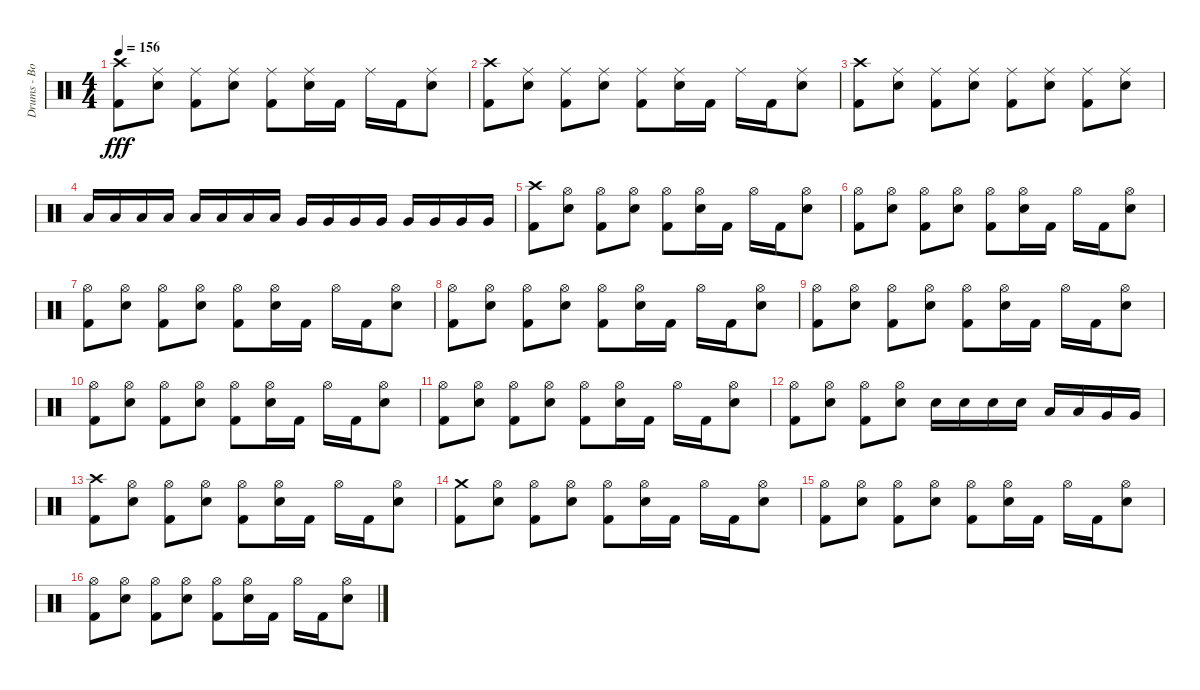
\track ("Drums - Bobby Schayer" "Drums - Bo") {instrument percussion}
\staff {score}
\articulation defaults
\ts (4 4)
\tempo 156
\clef neutral
\ks c
("Crash high (hit)" "Kick (hit) 2").8{dy fff} ("Electric Snare (hit)" "Ride (middle)").8 ("Kick (hit) 2" "Ride (middle)").8 ("Electric Snare (hit)" "Ride (middle)").8 ("Kick (hit) 2" "Ride (middle)").8 ("Electric Snare (hit)" "Ride (middle)").16 "Kick (hit) 2".16 "Ride (middle)".16 "Kick (hit) 2".16 ("Electric Snare (hit)" "Ride (middle)").8 |
("Kick (hit) 2" "Crash high (hit)").8 ("Electric Snare (hit)" "Ride (middle)").8 ("Kick (hit) 2" "Ride (middle)").8 ("Electric Snare (hit)" "Ride (middle)").8 ("Kick (hit) 2" "Ride (middle)").8 ("Electric Snare (hit)" "Ride (middle)").16 "Kick (hit) 2".16 "Ride (middle)".16 "Kick (hit) 2".16 ("Electric Snare (hit)" "Ride (middle)").8 |
("Kick (hit) 2" "Crash high (hit)").8 ("Electric Snare (hit)" "Ride (middle)").8 ("Kick (hit) 2" "Ride (middle)").8 ("Electric Snare (hit)" "Ride (middle)").8 ("Kick (hit) 2" "Ride (middle)").8 ("Electric Snare (hit)" "Ride (middle)").8 ("Kick (hit) 2" "Ride (middle)").8 ("Electric Snare (hit)" "Ride (middle)").8 |
"Low Tom (hit)".16 "Low Tom (hit)".16 "Low Tom (hit)".16 "Low Tom (hit)".16 "Low Tom (hit)".16 "Low Tom (hit)".16 "Low Tom (hit)".16 "Low Tom (hit)".16 "Very Low Tom (hit)".16 "Very Low Tom (hit)".16 "Very Low Tom (hit)".16 "Very Low Tom (hit)".16 "Very Low Tom (hit)".16 "Very Low Tom (hit)".16 "Very Low Tom (hit)".16 "Very Low Tom (hit)".16 |
("Kick (hit) 2" "Crash high (hit)").8 ("Electric Snare (hit)" "Hi-Hat (open)").8 ("Kick (hit) 2" "Hi-Hat (open)").8 ("Electric Snare (hit)" "Hi-Hat (open)").8 ("Kick (hit) 2" "Hi-Hat (open)").8 ("Electric Snare (hit)" "Hi-Hat (open)").16 "Kick (hit) 2".16 "Hi-Hat (open)".16 "Kick (hit) 2".16 ("Electric Snare (hit)" "Hi-Hat (open)").8 |
("Kick (hit) 2" "Hi-Hat (open)").8 ("Electric Snare (hit)" "Hi-Hat (open)").8 ("Kick (hit) 2" "Hi-Hat (open)").8 ("Electric Snare (hit)" "Hi-Hat (open)").8 ("Kick (hit) 2" "Hi-Hat (open)").8 ("Electric Snare (hit)" "Hi-Hat (open)").16 "Kick (hit) 2".16 "Hi-Hat (open)".16 "Kick (hit) 2".16 ("Electric Snare (hit)" "Hi-Hat (open)").8 |
("Kick (hit) 2" "Hi-Hat (open)").8 ("Electric Snare (hit)" "Hi-Hat (open)").8 ("Kick (hit) 2" "Hi-Hat (open)").8 ("Electric Snare (hit)" "Hi-Hat (open)").8 ("Kick (hit) 2" "Hi-Hat (open)").8 ("Electric Snare (hit)" "Hi-Hat (open)").16 "Kick (hit) 2".16 "Hi-Hat (open)".16 "Kick (hit) 2".16 ("Electric Snare (hit)" "Hi-Hat (open)").8 |
("Kick (hit) 2" "Hi-Hat (open)").8 ("Electric Snare (hit)" "Hi-Hat (open)").8 ("Kick (hit) 2" "Hi-Hat (open)").8 ("Electric Snare (hit)" "Hi-Hat (open)").8 ("Kick (hit) 2" "Hi-Hat (open)").8 ("Electric Snare (hit)" "Hi-Hat (open)").16 "Kick (hit) 2".16 "Hi-Hat (open)".16 "Kick (hit) 2".16 ("Electric Snare (hit)" "Hi-Hat (open)").8 |
("Kick (hit) 2" "Hi-Hat (open)").8 ("Electric Snare (hit)" "Hi-Hat (open)").8 ("Kick (hit) 2" "Hi-Hat (open)").8 ("Electric Snare (hit)" "Hi-Hat (open)").8 ("Kick (hit) 2" "Hi-Hat (open)").8 ("Electric Snare (hit)" "Hi-Hat (open)").16 "Kick (hit) 2".16 "Hi-Hat (open)".16 "Kick (hit) 2".16 ("Electric Snare (hit)" "Hi-Hat (open)").8 |
("Kick (hit) 2" "Hi-Hat (open)").8 ("Electric Snare (hit)" "Hi-Hat (open)").8 ("Kick (hit) 2" "Hi-Hat (open)").8 ("Electric Snare (hit)" "Hi-Hat (open)").8 ("Kick (hit) 2" "Hi-Hat (open)").8 ("Electric Snare (hit)" "Hi-Hat (open)").16 "Kick (hit) 2".16 "Hi-Hat (open)".16 "Kick (hit) 2".16 ("Electric Snare (hit)" "Hi-Hat (open)").8 |
("Kick (hit) 2" "Hi-Hat (open)").8 ("Electric Snare (hit)" "Hi-Hat (open)").8 ("Kick (hit) 2" "Hi-Hat (open)").8 ("Electric Snare (hit)" "Hi-Hat (open)").8 ("Kick (hit) 2" "Hi-Hat (open)").8 ("Electric Snare (hit)" "Hi-Hat (open)").16 "Kick (hit) 2".16 "Hi-Hat (open)".16 "Kick (hit) 2".16 ("Electric Snare (hit)" "Hi-Hat (open)").8 |
("Kick (hit) 2" "Hi-Hat (open)").8 ("Electric Snare (hit)" "Hi-Hat (open)").8 ("Kick (hit) 2" "Hi-Hat (open)").8 ("Electric Snare (hit)" "Hi-Hat (open)").8 "Electric Snare (hit)".16 "Electric Snare (hit)".16 "Electric Snare (hit)".16 "Electric Snare (hit)".16 "Low Tom (hit)".16 "Low Tom (hit)".16 "Very Low Tom (hit)".16 "Very Low Tom (hit)".16 |
("Kick (hit) 2" "Crash high (hit)").8 ("Electric Snare (hit)" "Hi-Hat (open)").8 ("Kick (hit) 2" "Hi-Hat (open)").8 ("Electric Snare (hit)" "Hi-Hat (open)").8 ("Kick (hit) 2" "Hi-Hat (open)").8 ("Electric Snare (hit)" "Hi-Hat (open)").16 "Kick (hit) 2".16 "Hi-Hat (open)".16 "Kick (hit) 2".16 ("Electric Snare (hit)" "Hi-Hat (open)").8 |
("Kick (hit) 2" "Crash medium (hit)").8 ("Electric Snare (hit)" "Hi-Hat (open)").8 ("Kick (hit) 2" "Hi-Hat (open)").8 ("Electric Snare (hit)" "Hi-Hat (open)").8 ("Kick (hit) 2" "Hi-Hat (open)").8 ("Electric Snare (hit)" "Hi-Hat (open)").16 "Kick (hit) 2".16 "Hi-Hat (open)".16 "Kick (hit) 2".16 ("Electric Snare (hit)" "Hi-Hat (open)").8 |
("Kick (hit) 2" "Hi-Hat (open)").8 ("Electric Snare (hit)" "Hi-Hat (open)").8 ("Kick (hit) 2" "Hi-Hat (open)").8 ("Electric Snare (hit)" "Hi-Hat (open)").8 ("Kick (hit) 2" "Hi-Hat (open)").8 ("Electric Snare (hit)" "Hi-Hat (open)").16 "Kick (hit) 2".16 "Hi-Hat (open)".16 "Kick (hit) 2".16 ("Electric Snare (hit)" "Hi-Hat (open)").8 |
("Kick (hit) 2" "Hi-Hat (open)").8 ("Electric Snare (hit)" "Hi-Hat (open)").8 ("Kick (hit) 2" "Hi-Hat (open)").8 ("Electric Snare (hit)" "Hi-Hat (open)").8 ("Kick (hit) 2" "Hi-Hat (open)").8 ("Electric Snare (hit)" "Hi-Hat (open)").16 "Kick (hit) 2".16 "Hi-Hat (open)".16 "Kick (hit) 2".16 ("Electric Snare (hit)" "Hi-Hat (open)").8
